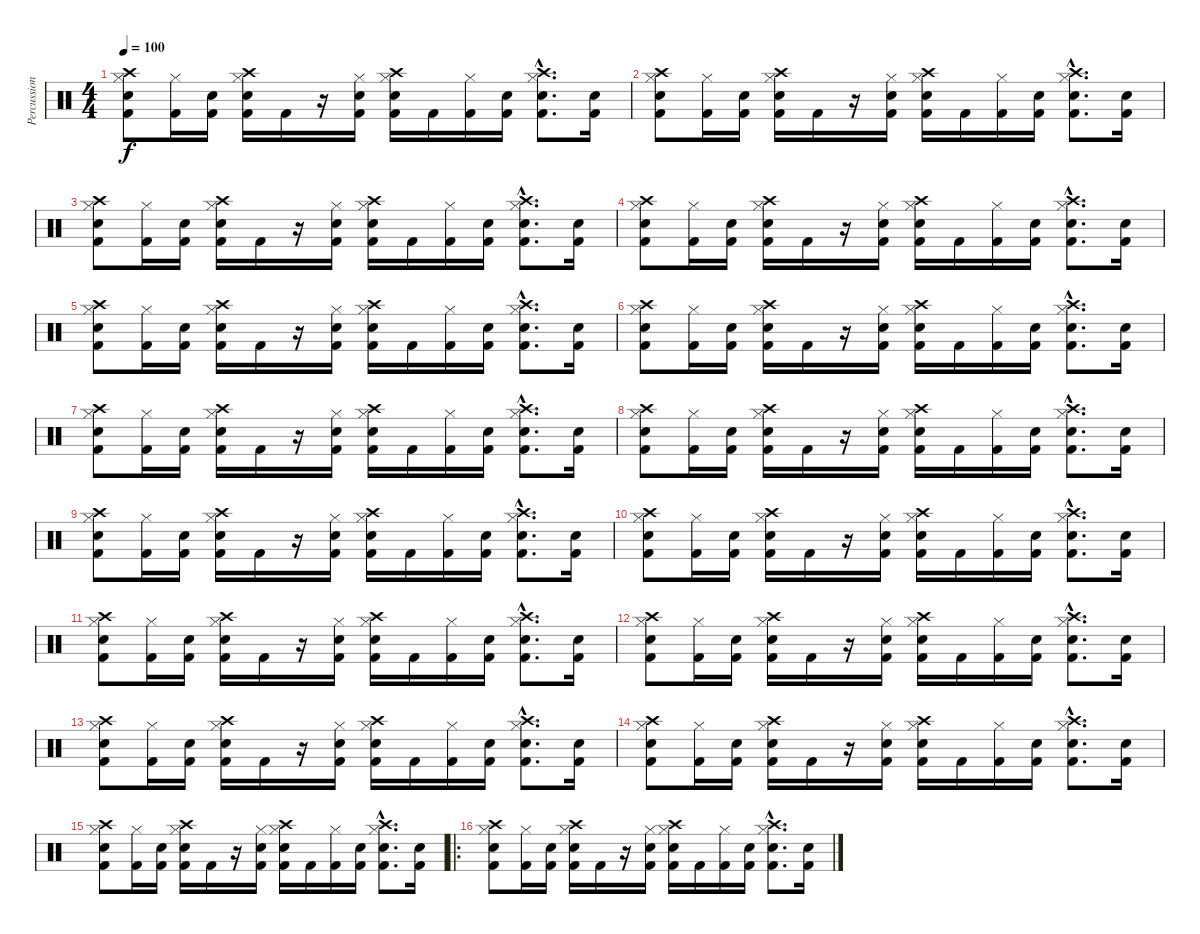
\track ("Percussion" "Percussion") {instrument percussion}
\staff {score}
\articulation defaults
\ts (4 4)
\tempo 100
\clef neutral
\ks c
("Electric Snare (hit)" "Kick (hit) 2" "Hi-Hat (closed)" "Crash high (hit)").8{dy f} ("Kick (hit) 2" "Hi-Hat (closed)").16 ("Electric Snare (hit)" "Kick (hit) 2").16 ("Electric Snare (hit)" "Kick (hit) 2" "Hi-Hat (closed)" "Crash high (hit)").16 "Kick (hit) 2".16 r.16 ("Electric Snare (hit)" "Kick (hit) 2" "Hi-Hat (closed)").16 ("Electric Snare (hit)" "Kick (hit) 2" "Hi-Hat (closed)" "Crash high (hit)").16 "Kick (hit) 2".16 ("Kick (hit) 2" "Hi-Hat (closed)").16 ("Electric Snare (hit)" "Kick (hit) 2").16 ("Electric Snare (hit)"{hac} "Kick (hit) 2"{hac} "Hi-Hat (closed)"{hac} "Crash high (hit)"{hac}).8{d} ("Electric Snare (hit)" "Kick (hit) 2").16 |
("Electric Snare (hit)" "Kick (hit) 2" "Hi-Hat (closed)" "Crash high (hit)").8 ("Kick (hit) 2" "Hi-Hat (closed)").16 ("Electric Snare (hit)" "Kick (hit) 2").16 ("Electric Snare (hit)" "Kick (hit) 2" "Hi-Hat (closed)" "Crash high (hit)").16 "Kick (hit) 2".16 r.16 ("Electric Snare (hit)" "Kick (hit) 2" "Hi-Hat (closed)").16 ("Electric Snare (hit)" "Kick (hit) 2" "Hi-Hat (closed)" "Crash high (hit)").16 "Kick (hit) 2".16 ("Kick (hit) 2" "Hi-Hat (closed)").16 ("Electric Snare (hit)" "Kick (hit) 2").16 ("Electric Snare (hit)"{hac} "Kick (hit) 2"{hac} "Hi-Hat (closed)"{hac} "Crash high (hit)"{hac}).8{d} ("Electric Snare (hit)" "Kick (hit) 2").16 |
("Electric Snare (hit)" "Kick (hit) 2" "Hi-Hat (closed)" "Crash high (hit)").8 ("Kick (hit) 2" "Hi-Hat (closed)").16 ("Electric Snare (hit)" "Kick (hit) 2").16 ("Electric Snare (hit)" "Kick (hit) 2" "Hi-Hat (closed)" "Crash high (hit)").16 "Kick (hit) 2".16 r.16 ("Electric Snare (hit)" "Kick (hit) 2" "Hi-Hat (closed)").16 ("Electric Snare (hit)" "Kick (hit) 2" "Hi-Hat (closed)" "Crash high (hit)").16 "Kick (hit) 2".16 ("Kick (hit) 2" "Hi-Hat (closed)").16 ("Electric Snare (hit)" "Kick (hit) 2").16 ("Electric Snare (hit)"{hac} "Kick (hit) 2"{hac} "Hi-Hat (closed)"{hac} "Crash high (hit)"{hac}).8{d} ("Electric Snare (hit)" "Kick (hit) 2").16 |
("Electric Snare (hit)" "Kick (hit) 2" "Hi-Hat (closed)" "Crash high (hit)").8 ("Kick (hit) 2" "Hi-Hat (closed)").16 ("Electric Snare (hit)" "Kick (hit) 2").16 ("Electric Snare (hit)" "Kick (hit) 2" "Hi-Hat (closed)" "Crash high (hit)").16 "Kick (hit) 2".16 r.16 ("Electric Snare (hit)" "Kick (hit) 2" "Hi-Hat (closed)").16 ("Electric Snare (hit)" "Kick (hit) 2" "Hi-Hat (closed)" "Crash high (hit)").16 "Kick (hit) 2".16 ("Kick (hit) 2" "Hi-Hat (closed)").16 ("Electric Snare (hit)" "Kick (hit) 2").16 ("Electric Snare (hit)"{hac} "Kick (hit) 2"{hac} "Hi-Hat (closed)"{hac} "Crash high (hit)"{hac}).8{d} ("Electric Snare (hit)" "Kick (hit) 2").16 |
("Electric Snare (hit)" "Kick (hit) 2" "Hi-Hat (closed)" "Crash high (hit)").8 ("Kick (hit) 2" "Hi-Hat (closed)").16 ("Electric Snare (hit)" "Kick (hit) 2").16 ("Electric Snare (hit)" "Kick (hit) 2" "Hi-Hat (closed)" "Crash high (hit)").16 "Kick (hit) 2".16 r.16 ("Electric Snare (hit)" "Kick (hit) 2" "Hi-Hat (closed)").16 ("Electric Snare (hit)" "Kick (hit) 2" "Hi-Hat (closed)" "Crash high (hit)").16 "Kick (hit) 2".16 ("Kick (hit) 2" "Hi-Hat (closed)").16 ("Electric Snare (hit)" "Kick (hit) 2").16 ("Electric Snare (hit)"{hac} "Kick (hit) 2"{hac} "Hi-Hat (closed)"{hac} "Crash high (hit)"{hac}).8{d} ("Electric Snare (hit)" "Kick (hit) 2").16 |
("Electric Snare (hit)" "Kick (hit) 2" "Hi-Hat (closed)" "Crash high (hit)").8 ("Kick (hit) 2" "Hi-Hat (closed)").16 ("Electric Snare (hit)" "Kick (hit) 2").16 ("Electric Snare (hit)" "Kick (hit) 2" "Hi-Hat (closed)" "Crash high (hit)").16 "Kick (hit) 2".16 r.16 ("Electric Snare (hit)" "Kick (hit) 2" "Hi-Hat (closed)").16 ("Electric Snare (hit)" "Kick (hit) 2" "Hi-Hat (closed)" "Crash high (hit)").16 "Kick (hit) 2".16 ("Kick (hit) 2" "Hi-Hat (closed)").16 ("Electric Snare (hit)" "Kick (hit) 2").16 ("Electric Snare (hit)"{hac} "Kick (hit) 2"{hac} "Hi-Hat (closed)"{hac} "Crash high (hit)"{hac}).8{d} ("Electric Snare (hit)" "Kick (hit) 2").16 |
("Electric Snare (hit)" "Kick (hit) 2" "Hi-Hat (closed)" "Crash high (hit)").8 ("Kick (hit) 2" "Hi-Hat (closed)").16 ("Electric Snare (hit)" "Kick (hit) 2").16 ("Electric Snare (hit)" "Kick (hit) 2" "Hi-Hat (closed)" "Crash high (hit)").16 "Kick (hit) 2".16 r.16 ("Electric Snare (hit)" "Kick (hit) 2" "Hi-Hat (closed)").16 ("Electric Snare (hit)" "Kick (hit) 2" "Hi-Hat (closed)" "Crash high (hit)").16 "Kick (hit) 2".16 ("Kick (hit) 2" "Hi-Hat (closed)").16 ("Electric Snare (hit)" "Kick (hit) 2").16 ("Electric Snare (hit)"{hac} "Kick (hit) 2"{hac} "Hi-Hat (closed)"{hac} "Crash high (hit)"{hac}).8{d} ("Electric Snare (hit)" "Kick (hit) 2").16 |
("Electric Snare (hit)" "Kick (hit) 2" "Hi-Hat (closed)" "Crash high (hit)").8 ("Kick (hit) 2" "Hi-Hat (closed)").16 ("Electric Snare (hit)" "Kick (hit) 2").16 ("Electric Snare (hit)" "Kick (hit) 2" "Hi-Hat (closed)" "Crash high (hit)").16 "Kick (hit) 2".16 r.16 ("Electric Snare (hit)" "Kick (hit) 2" "Hi-Hat (closed)").16 ("Electric Snare (hit)" "Kick (hit) 2" "Hi-Hat (closed)" "Crash high (hit)").16 "Kick (hit) 2".16 ("Kick (hit) 2" "Hi-Hat (closed)").16 ("Electric Snare (hit)" "Kick (hit) 2").16 ("Electric Snare (hit)"{hac} "Kick (hit) 2"{hac} "Hi-Hat (closed)"{hac} "Crash high (hit)"{hac}).8{d} ("Electric Snare (hit)" "Kick (hit) 2").16 |
("Electric Snare (hit)" "Kick (hit) 2" "Hi-Hat (closed)" "Crash high (hit)").8 ("Kick (hit) 2" "Hi-Hat (closed)").16 ("Electric Snare (hit)" "Kick (hit) 2").16 ("Electric Snare (hit)" "Kick (hit) 2" "Hi-Hat (closed)" "Crash high (hit)").16 "Kick (hit) 2".16 r.16 ("Electric Snare (hit)" "Kick (hit) 2" "Hi-Hat (closed)").16 ("Electric Snare (hit)" "Kick (hit) 2" "Hi-Hat (closed)" "Crash high (hit)").16 "Kick (hit) 2".16 ("Kick (hit) 2" "Hi-Hat (closed)").16 ("Electric Snare (hit)" "Kick (hit) 2").16 ("Electric Snare (hit)"{hac} "Kick (hit) 2"{hac} "Hi-Hat (closed)"{hac} "Crash high (hit)"{hac}).8{d} ("Electric Snare (hit)" "Kick (hit) 2").16 |
("Electric Snare (hit)" "Kick (hit) 2" "Hi-Hat (closed)" "Crash high (hit)").8 ("Kick (hit) 2" "Hi-Hat (closed)").16 ("Electric Snare (hit)" "Kick (hit) 2").16 ("Electric Snare (hit)" "Kick (hit) 2" "Hi-Hat (closed)" "Crash high (hit)").16 "Kick (hit) 2".16 r.16 ("Electric Snare (hit)" "Kick (hit) 2" "Hi-Hat (closed)").16 ("Electric Snare (hit)" "Kick (hit) 2" "Hi-Hat (closed)" "Crash high (hit)").16 "Kick (hit) 2".16 ("Kick (hit) 2" "Hi-Hat (closed)").16 ("Electric Snare (hit)" "Kick (hit) 2").16 ("Electric Snare (hit)"{hac} "Kick (hit) 2"{hac} "Hi-Hat (closed)"{hac} "Crash high (hit)"{hac}).8{d} ("Electric Snare (hit)" "Kick (hit) 2").16 |
("Electric Snare (hit)" "Kick (hit) 2" "Hi-Hat (closed)" "Crash high (hit)").8 ("Kick (hit) 2" "Hi-Hat (closed)").16 ("Electric Snare (hit)" "Kick (hit) 2").16 ("Electric Snare (hit)" "Kick (hit) 2" "Hi-Hat (closed)" "Crash high (hit)").16 "Kick (hit) 2".16 r.16 ("Electric Snare (hit)" "Kick (hit) 2" "Hi-Hat (closed)").16 ("Electric Snare (hit)" "Kick (hit) 2" "Hi-Hat (closed)" "Crash high (hit)").16 "Kick (hit) 2".16 ("Kick (hit) 2" "Hi-Hat (closed)").16 ("Electric Snare (hit)" "Kick (hit) 2").16 ("Electric Snare (hit)"{hac} "Kick (hit) 2"{hac} "Hi-Hat (closed)"{hac} "Crash high (hit)"{hac}).8{d} ("Electric Snare (hit)" "Kick (hit) 2").16 |
("Electric Snare (hit)" "Kick (hit) 2" "Hi-Hat (closed)" "Crash high (hit)").8 ("Kick (hit) 2" "Hi-Hat (closed)").16 ("Electric Snare (hit)" "Kick (hit) 2").16 ("Electric Snare (hit)" "Kick (hit) 2" "Hi-Hat (closed)" "Crash high (hit)").16 "Kick (hit) 2".16 r.16 ("Electric Snare (hit)" "Kick (hit) 2" "Hi-Hat (closed)").16 ("Electric Snare (hit)" "Kick (hit) 2" "Hi-Hat (closed)" "Crash high (hit)").16 "Kick (hit) 2".16 ("Kick (hit) 2" "Hi-Hat (closed)").16 ("Electric Snare (hit)" "Kick (hit) 2").16 ("Electric Snare (hit)"{hac} "Kick (hit) 2"{hac} "Hi-Hat (closed)"{hac} "Crash high (hit)"{hac}).8{d} ("Electric Snare (hit)" "Kick (hit) 2").16 |
("Electric Snare (hit)" "Kick (hit) 2" "Hi-Hat (closed)" "Crash high (hit)").8 ("Kick (hit) 2" "Hi-Hat (closed)").16 ("Electric Snare (hit)" "Kick (hit) 2").16 ("Electric Snare (hit)" "Kick (hit) 2" "Hi-Hat (closed)" "Crash high (hit)").16 "Kick (hit) 2".16 r.16 ("Electric Snare (hit)" "Kick (hit) 2" "Hi-Hat (closed)").16 ("Electric Snare (hit)" "Kick (hit) 2" "Hi-Hat (closed)" "Crash high (hit)").16 "Kick (hit) 2".16 ("Kick (hit) 2" "Hi-Hat (closed)").16 ("Electric Snare (hit)" "Kick (hit) 2").16 ("Electric Snare (hit)"{hac} "Kick (hit) 2"{hac} "Hi-Hat (closed)"{hac} "Crash high (hit)"{hac}).8{d} ("Electric Snare (hit)" "Kick (hit) 2").16 |
("Electric Snare (hit)" "Kick (hit) 2" "Hi-Hat (closed)" "Crash high (hit)").8 ("Kick (hit) 2" "Hi-Hat (closed)").16 ("Electric Snare (hit)" "Kick (hit) 2").16 ("Electric Snare (hit)" "Kick (hit) 2" "Hi-Hat (closed)" "Crash high (hit)").16 "Kick (hit) 2".16 r.16 ("Electric Snare (hit)" "Kick (hit) 2" "Hi-Hat (closed)").16 ("Electric Snare (hit)" "Kick (hit) 2" "Hi-Hat (closed)" "Crash high (hit)").16 "Kick (hit) 2".16 ("Kick (hit) 2" "Hi-Hat (closed)").16 ("Electric Snare (hit)" "Kick (hit) 2").16 ("Electric Snare (hit)"{hac} "Kick (hit) 2"{hac} "Hi-Hat (closed)"{hac} "Crash high (hit)"{hac}).8{d} ("Electric Snare (hit)" "Kick (hit) 2").16 |
("Electric Snare (hit)" "Kick (hit) 2" "Hi-Hat (closed)" "Crash high (hit)").8 ("Kick (hit) 2" "Hi-Hat (closed)").16 ("Electric Snare (hit)" "Kick (hit) 2").16 ("Electric Snare (hit)" "Kick (hit) 2" "Hi-Hat (closed)" "Crash high (hit)").16 "Kick (hit) 2".16 r.16 ("Electric Snare (hit)" "Kick (hit) 2" "Hi-Hat (closed)").16 ("Electric Snare (hit)" "Kick (hit) 2" "Hi-Hat (closed)" "Crash high (hit)").16 "Kick (hit) 2".16 ("Kick (hit) 2" "Hi-Hat (closed)").16 ("Electric Snare (hit)" "Kick (hit) 2").16 ("Electric Snare (hit)"{hac} "Kick (hit) 2"{hac} "Hi-Hat (closed)"{hac} "Crash high (hit)"{hac}).8{d} ("Electric Snare (hit)" "Kick (hit) 2").16 |
\ro
("Electric Snare (hit)" "Kick (hit) 2" "Hi-Hat (closed)" "Crash high (hit)").8 ("Kick (hit) 2" "Hi-Hat (closed)").16 ("Electric Snare (hit)" "Kick (hit) 2").16 ("Electric Snare (hit)" "Kick (hit) 2" "Hi-Hat (closed)" "Crash high (hit)").16 "Kick (hit) 2".16 r.16 ("Electric Snare (hit)" "Kick (hit) 2" "Hi-Hat (closed)").16 ("Electric Snare (hit)" "Kick (hit) 2" "Hi-Hat (closed)" "Crash high (hit)").16 "Kick (hit) 2".16 ("Kick (hit) 2" "Hi-Hat (closed)").16 ("Electric Snare (hit)" "Kick (hit) 2").16 ("Electric Snare (hit)"{hac} "Kick (hit) 2"{hac} "Hi-Hat (closed)"{hac} "Crash high (hit)"{hac}).8{d} ("Electric Snare (hit)" "Kick (hit) 2").16
